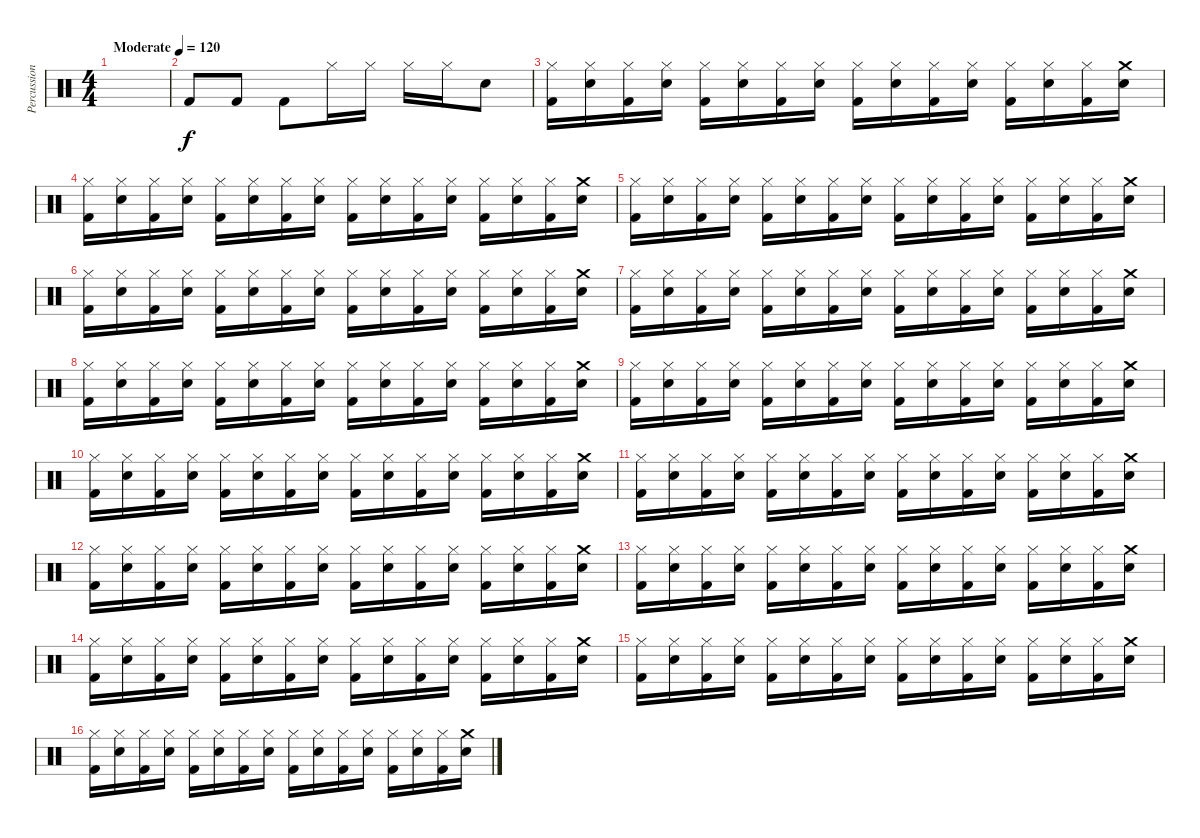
\track ("Percussions" "Percussion") {instrument percussion}
\staff {score}
\articulation defaults
\ts (4 4)
\tempo (120 "Moderate")
\clef neutral
\ks c
|
"Kick (hit) 2".8 "Kick (hit) 2".8 "Kick (hit) 2".8 "Hi-Hat (closed)".16 "Hi-Hat (closed)".16 "Hi-Hat (closed)".16 "Hi-Hat (closed)".16 "Electric Snare (hit)".8 |
("Hi-Hat (closed)" "Kick (hit) 2").16 ("Hi-Hat (closed)" "Electric Snare (hit)").16 ("Hi-Hat (closed)" "Kick (hit) 2").16 ("Hi-Hat (closed)" "Electric Snare (hit)").16 ("Hi-Hat (closed)" "Kick (hit) 2").16 ("Hi-Hat (closed)" "Electric Snare (hit)").16 ("Hi-Hat (closed)" "Kick (hit) 2").16 ("Hi-Hat (closed)" "Electric Snare (hit)").16 ("Hi-Hat (closed)" "Kick (hit) 2").16 ("Hi-Hat (closed)" "Electric Snare (hit)").16 ("Hi-Hat (closed)" "Kick (hit) 2").16 ("Hi-Hat (closed)" "Electric Snare (hit)").16 ("Hi-Hat (closed)" "Kick (hit) 2").16 ("Hi-Hat (closed)" "Electric Snare (hit)").16 ("Hi-Hat (closed)" "Kick (hit) 2").16 ("Crash medium (hit)" "Electric Snare (hit)").16 |
("Hi-Hat (closed)" "Kick (hit) 2").16 ("Hi-Hat (closed)" "Electric Snare (hit)").16 ("Hi-Hat (closed)" "Kick (hit) 2").16 ("Hi-Hat (closed)" "Electric Snare (hit)").16 ("Hi-Hat (closed)" "Kick (hit) 2").16 ("Hi-Hat (closed)" "Electric Snare (hit)").16 ("Hi-Hat (closed)" "Kick (hit) 2").16 ("Hi-Hat (closed)" "Electric Snare (hit)").16 ("Hi-Hat (closed)" "Kick (hit) 2").16 ("Hi-Hat (closed)" "Electric Snare (hit)").16 ("Hi-Hat (closed)" "Kick (hit) 2").16 ("Hi-Hat (closed)" "Electric Snare (hit)").16 ("Hi-Hat (closed)" "Kick (hit) 2").16 ("Hi-Hat (closed)" "Electric Snare (hit)").16 ("Hi-Hat (closed)" "Kick (hit) 2").16 ("Crash medium (hit)" "Electric Snare (hit)").16 |
("Hi-Hat (closed)" "Kick (hit) 2").16 ("Hi-Hat (closed)" "Electric Snare (hit)").16 ("Hi-Hat (closed)" "Kick (hit) 2").16 ("Hi-Hat (closed)" "Electric Snare (hit)").16 ("Hi-Hat (closed)" "Kick (hit) 2").16 ("Hi-Hat (closed)" "Electric Snare (hit)").16 ("Hi-Hat (closed)" "Kick (hit) 2").16 ("Hi-Hat (closed)" "Electric Snare (hit)").16 ("Hi-Hat (closed)" "Kick (hit) 2").16 ("Hi-Hat (closed)" "Electric Snare (hit)").16 ("Hi-Hat (closed)" "Kick (hit) 2").16 ("Hi-Hat (closed)" "Electric Snare (hit)").16 ("Hi-Hat (closed)" "Kick (hit) 2").16 ("Hi-Hat (closed)" "Electric Snare (hit)").16 ("Hi-Hat (closed)" "Kick (hit) 2").16 ("Crash medium (hit)" "Electric Snare (hit)").16 |
("Hi-Hat (closed)" "Kick (hit) 2").16 ("Hi-Hat (closed)" "Electric Snare (hit)").16 ("Hi-Hat (closed)" "Kick (hit) 2").16 ("Hi-Hat (closed)" "Electric Snare (hit)").16 ("Hi-Hat (closed)" "Kick (hit) 2").16 ("Hi-Hat (closed)" "Electric Snare (hit)").16 ("Hi-Hat (closed)" "Kick (hit) 2").16 ("Hi-Hat (closed)" "Electric Snare (hit)").16 ("Hi-Hat (closed)" "Kick (hit) 2").16 ("Hi-Hat (closed)" "Electric Snare (hit)").16 ("Hi-Hat (closed)" "Kick (hit) 2").16 ("Hi-Hat (closed)" "Electric Snare (hit)").16 ("Hi-Hat (closed)" "Kick (hit) 2").16 ("Hi-Hat (closed)" "Electric Snare (hit)").16 ("Hi-Hat (closed)" "Kick (hit) 2").16 ("Crash medium (hit)" "Electric Snare (hit)").16 |
("Hi-Hat (closed)" "Kick (hit) 2").16 ("Hi-Hat (closed)" "Electric Snare (hit)").16 ("Hi-Hat (closed)" "Kick (hit) 2").16 ("Hi-Hat (closed)" "Electric Snare (hit)").16 ("Hi-Hat (closed)" "Kick (hit) 2").16 ("Hi-Hat (closed)" "Electric Snare (hit)").16 ("Hi-Hat (closed)" "Kick (hit) 2").16 ("Hi-Hat (closed)" "Electric Snare (hit)").16 ("Hi-Hat (closed)" "Kick (hit) 2").16 ("Hi-Hat (closed)" "Electric Snare (hit)").16 ("Hi-Hat (closed)" "Kick (hit) 2").16 ("Hi-Hat (closed)" "Electric Snare (hit)").16 ("Hi-Hat (closed)" "Kick (hit) 2").16 ("Hi-Hat (closed)" "Electric Snare (hit)").16 ("Hi-Hat (closed)" "Kick (hit) 2").16 ("Crash medium (hit)" "Electric Snare (hit)").16 |
("Hi-Hat (closed)" "Kick (hit) 2").16 ("Hi-Hat (closed)" "Electric Snare (hit)").16 ("Hi-Hat (closed)" "Kick (hit) 2").16 ("Hi-Hat (closed)" "Electric Snare (hit)").16 ("Hi-Hat (closed)" "Kick (hit) 2").16 ("Hi-Hat (closed)" "Electric Snare (hit)").16 ("Hi-Hat (closed)" "Kick (hit) 2").16 ("Hi-Hat (closed)" "Electric Snare (hit)").16 ("Hi-Hat (closed)" "Kick (hit) 2").16 ("Hi-Hat (closed)" "Electric Snare (hit)").16 ("Hi-Hat (closed)" "Kick (hit) 2").16 ("Hi-Hat (closed)" "Electric Snare (hit)").16 ("Hi-Hat (closed)" "Kick (hit) 2").16 ("Hi-Hat (closed)" "Electric Snare (hit)").16 ("Hi-Hat (closed)" "Kick (hit) 2").16 ("Crash medium (hit)" "Electric Snare (hit)").16 |
("Hi-Hat (closed)" "Kick (hit) 2").16 ("Hi-Hat (closed)" "Electric Snare (hit)").16 ("Hi-Hat (closed)" "Kick (hit) 2").16 ("Hi-Hat (closed)" "Electric Snare (hit)").16 ("Hi-Hat (closed)" "Kick (hit) 2").16 ("Hi-Hat (closed)" "Electric Snare (hit)").16 ("Hi-Hat (closed)" "Kick (hit) 2").16 ("Hi-Hat (closed)" "Electric Snare (hit)").16 ("Hi-Hat (closed)" "Kick (hit) 2").16 ("Hi-Hat (closed)" "Electric Snare (hit)").16 ("Hi-Hat (closed)" "Kick (hit) 2").16 ("Hi-Hat (closed)" "Electric Snare (hit)").16 ("Hi-Hat (closed)" "Kick (hit) 2").16 ("Hi-Hat (closed)" "Electric Snare (hit)").16 ("Hi-Hat (closed)" "Kick (hit) 2").16 ("Crash medium (hit)" "Electric Snare (hit)").16 |
("Hi-Hat (closed)" "Kick (hit) 2").16 ("Hi-Hat (closed)" "Electric Snare (hit)").16 ("Hi-Hat (closed)" "Kick (hit) 2").16 ("Hi-Hat (closed)" "Electric Snare (hit)").16 ("Hi-Hat (closed)" "Kick (hit) 2").16 ("Hi-Hat (closed)" "Electric Snare (hit)").16 ("Hi-Hat (closed)" "Kick (hit) 2").16 ("Hi-Hat (closed)" "Electric Snare (hit)").16 ("Hi-Hat (closed)" "Kick (hit) 2").16 ("Hi-Hat (closed)" "Electric Snare (hit)").16 ("Hi-Hat (closed)" "Kick (hit) 2").16 ("Hi-Hat (closed)" "Electric Snare (hit)").16 ("Hi-Hat (closed)" "Kick (hit) 2").16 ("Hi-Hat (closed)" "Electric Snare (hit)").16 ("Hi-Hat (closed)" "Kick (hit) 2").16 ("Crash medium (hit)" "Electric Snare (hit)").16 |
("Hi-Hat (closed)" "Kick (hit) 2").16 ("Hi-Hat (closed)" "Electric Snare (hit)").16 ("Hi-Hat (closed)" "Kick (hit) 2").16 ("Hi-Hat (closed)" "Electric Snare (hit)").16 ("Hi-Hat (closed)" "Kick (hit) 2").16 ("Hi-Hat (closed)" "Electric Snare (hit)").16 ("Hi-Hat (closed)" "Kick (hit) 2").16 ("Hi-Hat (closed)" "Electric Snare (hit)").16 ("Hi-Hat (closed)" "Kick (hit) 2").16 ("Hi-Hat (closed)" "Electric Snare (hit)").16 ("Hi-Hat (closed)" "Kick (hit) 2").16 ("Hi-Hat (closed)" "Electric Snare (hit)").16 ("Hi-Hat (closed)" "Kick (hit) 2").16 ("Hi-Hat (closed)" "Electric Snare (hit)").16 ("Hi-Hat (closed)" "Kick (hit) 2").16 ("Crash medium (hit)" "Electric Snare (hit)").16 |
("Hi-Hat (closed)" "Kick (hit) 2").16 ("Hi-Hat (closed)" "Electric Snare (hit)").16 ("Hi-Hat (closed)" "Kick (hit) 2").16 ("Hi-Hat (closed)" "Electric Snare (hit)").16 ("Hi-Hat (closed)" "Kick (hit) 2").16 ("Hi-Hat (closed)" "Electric Snare (hit)").16 ("Hi-Hat (closed)" "Kick (hit) 2").16 ("Hi-Hat (closed)" "Electric Snare (hit)").16 ("Hi-Hat (closed)" "Kick (hit) 2").16 ("Hi-Hat (closed)" "Electric Snare (hit)").16 ("Hi-Hat (closed)" "Kick (hit) 2").16 ("Hi-Hat (closed)" "Electric Snare (hit)").16 ("Hi-Hat (closed)" "Kick (hit) 2").16 ("Hi-Hat (closed)" "Electric Snare (hit)").16 ("Hi-Hat (closed)" "Kick (hit) 2").16 ("Crash medium (hit)" "Electric Snare (hit)").16 |
("Hi-Hat (closed)" "Kick (hit) 2").16 ("Hi-Hat (closed)" "Electric Snare (hit)").16 ("Hi-Hat (closed)" "Kick (hit) 2").16 ("Hi-Hat (closed)" "Electric Snare (hit)").16 ("Hi-Hat (closed)" "Kick (hit) 2").16 ("Hi-Hat (closed)" "Electric Snare (hit)").16 ("Hi-Hat (closed)" "Kick (hit) 2").16 ("Hi-Hat (closed)" "Electric Snare (hit)").16 ("Hi-Hat (closed)" "Kick (hit) 2").16 ("Hi-Hat (closed)" "Electric Snare (hit)").16 ("Hi-Hat (closed)" "Kick (hit) 2").16 ("Hi-Hat (closed)" "Electric Snare (hit)").16 ("Hi-Hat (closed)" "Kick (hit) 2").16 ("Hi-Hat (closed)" "Electric Snare (hit)").16 ("Hi-Hat (closed)" "Kick (hit) 2").16 ("Crash medium (hit)" "Electric Snare (hit)").16 |
("Hi-Hat (closed)" "Kick (hit) 2").16 ("Hi-Hat (closed)" "Electric Snare (hit)").16 ("Hi-Hat (closed)" "Kick (hit) 2").16 ("Hi-Hat (closed)" "Electric Snare (hit)").16 ("Hi-Hat (closed)" "Kick (hit) 2").16 ("Hi-Hat (closed)" "Electric Snare (hit)").16 ("Hi-Hat (closed)" "Kick (hit) 2").16 ("Hi-Hat (closed)" "Electric Snare (hit)").16 ("Hi-Hat (closed)" "Kick (hit) 2").16 ("Hi-Hat (closed)" "Electric Snare (hit)").16 ("Hi-Hat (closed)" "Kick (hit) 2").16 ("Hi-Hat (closed)" "Electric Snare (hit)").16 ("Hi-Hat (closed)" "Kick (hit) 2").16 ("Hi-Hat (closed)" "Electric Snare (hit)").16 ("Hi-Hat (closed)" "Kick (hit) 2").16 ("Crash medium (hit)" "Electric Snare (hit)").16 |
("Hi-Hat (closed)" "Kick (hit) 2").16 ("Hi-Hat (closed)" "Electric Snare (hit)").16 ("Hi-Hat (closed)" "Kick (hit) 2").16 ("Hi-Hat (closed)" "Electric Snare (hit)").16 ("Hi-Hat (closed)" "Kick (hit) 2").16 ("Hi-Hat (closed)" "Electric Snare (hit)").16 ("Hi-Hat (closed)" "Kick (hit) 2").16 ("Hi-Hat (closed)" "Electric Snare (hit)").16 ("Hi-Hat (closed)" "Kick (hit) 2").16 ("Hi-Hat (closed)" "Electric Snare (hit)").16 ("Hi-Hat (closed)" "Kick (hit) 2").16 ("Hi-Hat (closed)" "Electric Snare (hit)").16 ("Hi-Hat (closed)" "Kick (hit) 2").16 ("Hi-Hat (closed)" "Electric Snare (hit)").16 ("Hi-Hat (closed)" "Kick (hit) 2").16 ("Crash medium (hit)" "Electric Snare (hit)").16 |
("Hi-Hat (closed)" "Kick (hit) 2").16 ("Hi-Hat (closed)" "Electric Snare (hit)").16 ("Hi-Hat (closed)" "Kick (hit) 2").16 ("Hi-Hat (closed)" "Electric Snare (hit)").16 ("Hi-Hat (closed)" "Kick (hit) 2").16 ("Hi-Hat (closed)" "Electric Snare (hit)").16 ("Hi-Hat (closed)" "Kick (hit) 2").16 ("Hi-Hat (closed)" "Electric Snare (hit)").16 ("Hi-Hat (closed)" "Kick (hit) 2").16 ("Hi-Hat (closed)" "Electric Snare (hit)").16 ("Hi-Hat (closed)" "Kick (hit) 2").16 ("Hi-Hat (closed)" "Electric Snare (hit)").16 ("Hi-Hat (closed)" "Kick (hit) 2").16 ("Hi-Hat (closed)" "Electric Snare (hit)").16 ("Hi-Hat (closed)" "Kick (hit) 2").16 ("Crash medium (hit)" "Electric Snare (hit)").16
